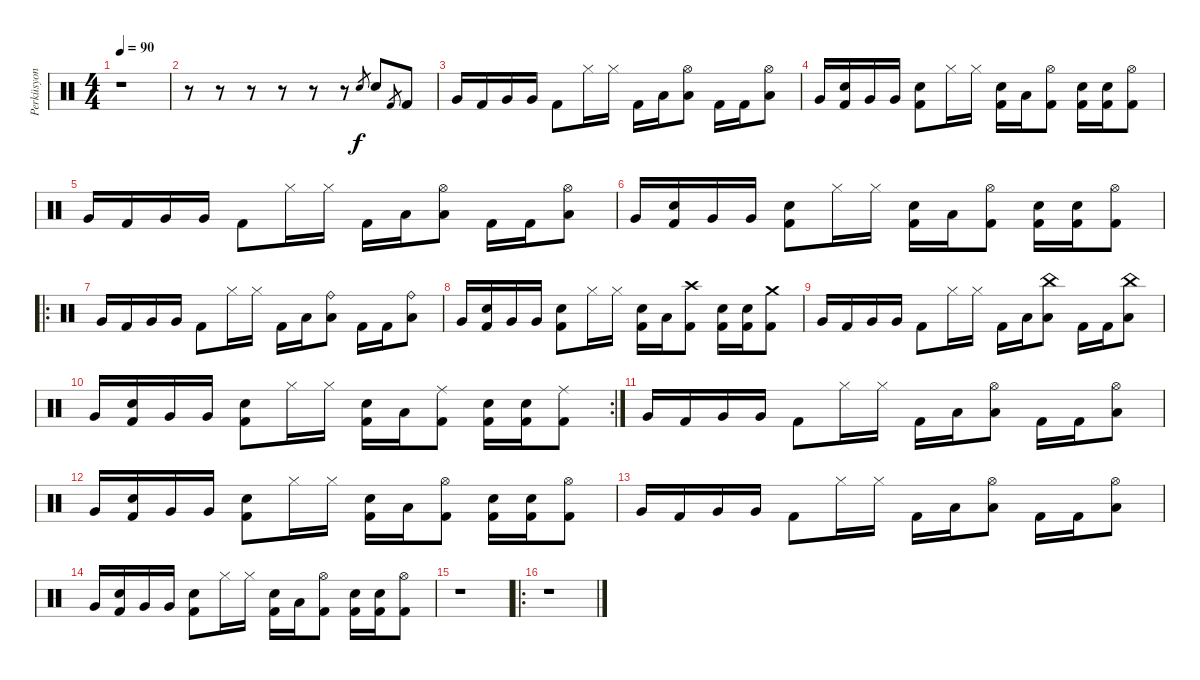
\track ("Perküsyon" "Perküsyon") {instrument percussion}
\staff {score}
\articulation defaults
\ts (4 4)
\tempo 90
\clef neutral
\ks c
r.1{dy f} |
r.8 r.8 r.8 r.8 r.8 r.8 "Snare (hit) 2".8{gr} "Snare (hit) 2".8 "Kick (hit) 2".8{gr} "Kick (hit) 2".8 |
"Very Low Tom (hit)".16 "Kick (hit) 2".16 "Very Low Tom (hit)".16 "Very Low Tom (hit)".16 "Kick (hit) 2".8 "Hi-Hat (closed)".16 "Hi-Hat (closed)".16 "Kick (hit) 2".16 "Low Tom (hit)".16 ("Hi-Hat (open)" "Low Floor Tom (hit)").8 "Kick (hit) 2".16 "Kick (hit) 2".16 ("Hi-Hat (open)" "Low Floor Tom (hit)").8 |
"Very Low Tom (hit)".16 ("Snare (hit) 2" "Kick (hit) 2").16 "Very Low Tom (hit)".16 "Very Low Tom (hit)".16 ("Snare (hit) 2" "Kick (hit) 2").8 "Hi-Hat (closed)".16 "Hi-Hat (closed)".16 ("Snare (hit) 2" "Kick (hit) 2").16 "Low Tom (hit)".16 ("Hi-Hat (open)" "Kick (hit) 2").8 ("Snare (hit) 2" "Kick (hit) 2").16 ("Snare (hit) 2" "Kick (hit) 2").16 ("Hi-Hat (open)" "Kick (hit) 2").8 |
"Very Low Tom (hit)".16 "Kick (hit) 2".16 "Very Low Tom (hit)".16 "Very Low Tom (hit)".16 "Kick (hit) 2".8 "Hi-Hat (closed)".16 "Hi-Hat (closed)".16 "Kick (hit) 2".16 "Low Tom (hit)".16 ("Hi-Hat (open)" "Low Floor Tom (hit)").8 "Kick (hit) 2".16 "Kick (hit) 2".16 ("Hi-Hat (open)" "Low Floor Tom (hit)").8 |
"Very Low Tom (hit)".16 ("Snare (hit) 2" "Kick (hit) 2").16 "Very Low Tom (hit)".16 "Very Low Tom (hit)".16 ("Snare (hit) 2" "Kick (hit) 2").8 "Hi-Hat (closed)".16 "Hi-Hat (closed)".16 ("Snare (hit) 2" "Kick (hit) 2").16 "Low Tom (hit)".16 ("Hi-Hat (open)" "Kick (hit) 2").8 ("Snare (hit) 2" "Kick (hit) 2").16 ("Snare (hit) 2" "Kick (hit) 2").16 ("Hi-Hat (open)" "Kick (hit) 2").8 |
\ro "Very Low Tom (hit)".16 "Kick (hit) 2".16 "Very Low Tom (hit)".16 "Very Low Tom (hit)".16 "Kick (hit) 2".8 "Hi-Hat (closed)".16 "Hi-Hat (closed)".16 "Kick (hit) 2".16 "Low Tom (hit)".16
("Ride (bell)" "Low Floor Tom (hit)").8 "Kick (hit) 2".16 "Kick (hit) 2".16 ("Ride (bell)" "Low Floor Tom (hit)").8 |
"Very Low Tom (hit)".16 ("Snare (hit) 2" "Kick (hit) 2").16 "Very Low Tom (hit)".16 "Very Low Tom (hit)".16 ("Snare (hit) 2" "Kick (hit) 2").8 "Hi-Hat (closed)".16 "Hi-Hat (closed)".16 ("Snare (hit) 2" "Kick (hit) 2").16 "Low Tom (hit)".16 ("Crash high (hit)" "Kick (hit) 2").8 ("Snare (hit) 2" "Kick (hit) 2").16 ("Snare (hit) 2" "Kick (hit) 2").16 ("Crash medium (hit)" "Kick (hit) 2").8 |
"Very Low Tom (hit)".16 "Kick (hit) 2".16 "Very Low Tom (hit)".16 "Very Low Tom (hit)".16 "Kick (hit) 2".8 "Hi-Hat (closed)".16 "Hi-Hat (closed)".16 "Kick (hit) 2".16 "Low Tom (hit)".16 ("China (hit)" "Low Floor Tom (hit)").8 "Kick (hit) 2".16 "Kick (hit) 2".16 ("China (hit)" "Low Floor Tom (hit)").8 |
\rc 2 "Very Low Tom (hit)".16
("Snare (hit) 2" "Kick (hit) 2").16 "Very Low Tom (hit)".16 "Very Low Tom (hit)".16 ("Snare (hit) 2" "Kick (hit) 2").8 "Hi-Hat (closed)".16 "Hi-Hat (closed)".16 ("Snare (hit) 2" "Kick (hit) 2").16 "Low Tom (hit)".16 ("Ride (middle)" "Kick (hit) 2").8 ("Snare (hit) 2" "Kick (hit) 2").16 ("Snare (hit) 2" "Kick (hit) 2").16 ("Ride (middle)" "Kick (hit) 2").8 |
"Very Low Tom (hit)".16 "Kick (hit) 2".16 "Very Low Tom (hit)".16 "Very Low Tom (hit)".16 "Kick (hit) 2".8 "Hi-Hat (closed)".16 "Hi-Hat (closed)".16 "Kick (hit) 2".16 "Low Tom (hit)".16 ("Hi-Hat (open)" "Low Floor Tom (hit)").8 "Kick (hit) 2".16 "Kick (hit) 2".16 ("Hi-Hat (open)" "Low Floor Tom (hit)").8 |
"Very Low Tom (hit)".16 ("Snare (hit) 2" "Kick (hit) 2").16 "Very Low Tom (hit)".16 "Very Low Tom (hit)".16 ("Snare (hit) 2" "Kick (hit) 2").8 "Hi-Hat (closed)".16 "Hi-Hat (closed)".16 ("Snare (hit) 2" "Kick (hit) 2").16 "Low Tom (hit)".16 ("Hi-Hat (open)" "Kick (hit) 2").8 ("Snare (hit) 2" "Kick (hit) 2").16 ("Snare (hit) 2" "Kick (hit) 2").16 ("Hi-Hat (open)" "Kick (hit) 2").8 |
"Very Low Tom (hit)".16 "Kick (hit) 2".16 "Very Low Tom (hit)".16 "Very Low Tom (hit)".16 "Kick (hit) 2".8 "Hi-Hat (closed)".16 "Hi-Hat (closed)".16 "Kick (hit) 2".16 "Low Tom (hit)".16 ("Hi-Hat (open)" "Low Floor Tom (hit)").8 "Kick (hit) 2".16 "Kick (hit) 2".16 ("Hi-Hat (open)" "Low Floor Tom (hit)").8 |
"Very Low Tom (hit)".16 ("Snare (hit) 2" "Kick (hit) 2").16 "Very Low Tom (hit)".16 "Very Low Tom (hit)".16 ("Snare (hit) 2" "Kick (hit) 2").8 "Hi-Hat (closed)".16 "Hi-Hat (closed)".16 ("Snare (hit) 2" "Kick (hit) 2").16 "Low Tom (hit)".16 ("Hi-Hat (open)" "Kick (hit) 2").8 ("Snare (hit) 2" "Kick (hit) 2").16 ("Snare (hit) 2" "Kick (hit) 2").16 ("Hi-Hat (open)" "Kick (hit) 2").8 |
r.1 |
\ro
r.1
